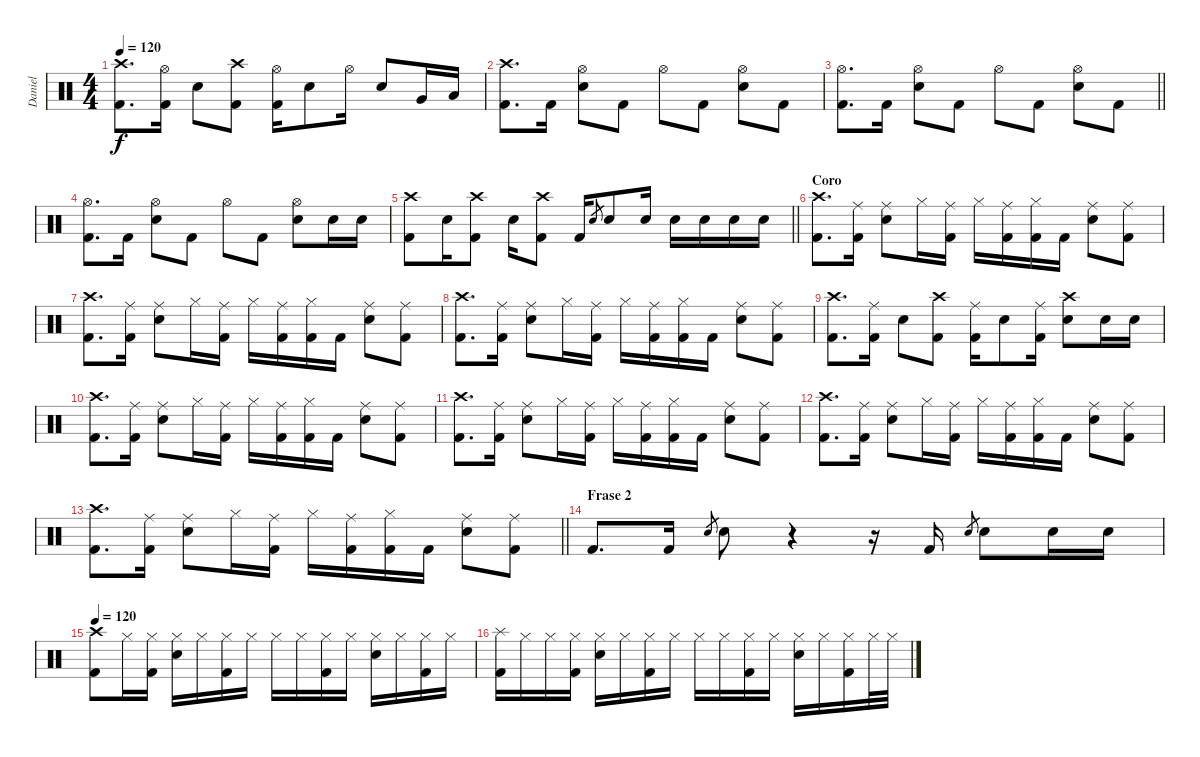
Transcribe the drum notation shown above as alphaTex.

\track ("Daniel" "Daniel") {instrument percussion}
\staff {score}
\articulation defaults
\ts (4 4)
\tempo 120
\clef neutral
\ks c
("Crash high (hit)" "Kick (hit) 2").8{d dy f} ("Hi-Hat (open)" "Kick (hit) 2").16 "Snare (hit) 2".8 ("Crash high (hit)" "Kick (hit) 2").8 ("Hi-Hat (open)" "Kick (hit) 2").16 "Snare (hit) 2".8 "Hi-Hat (open)".16 "Snare (hit) 2".8 "Very Low Tom (hit)".16 "Low Floor Tom (hit)".16 |
("Crash high (hit)" "Kick (hit) 2").8{d} "Kick (hit) 2".16 ("Hi-Hat (open)" "Snare (hit) 2").8 "Kick (hit) 2".8 "Hi-Hat (open)".8 "Kick (hit) 2".8 ("Hi-Hat (open)" "Snare (hit) 2").8 "Kick (hit) 2".8 |
\barLineRight lightlight
("Hi-Hat (open)" "Kick (hit) 2").8{d} "Kick (hit) 2".16 ("Hi-Hat (open)" "Snare (hit) 2").8 "Kick (hit) 2".8 "Hi-Hat (open)".8 "Kick (hit) 2".8 ("Hi-Hat (open)" "Snare (hit) 2").8 "Kick (hit) 2".8 |
("Hi-Hat (open)" "Kick (hit) 2").8{d} "Kick (hit) 2".16 ("Hi-Hat (open)" "Snare (hit) 2").8 "Kick (hit) 2".8 "Hi-Hat (open)".8 "Kick (hit) 2".8 ("Hi-Hat (open)" "Snare (hit) 2").8 "Snare (hit) 2".16 "Snare (hit) 2".16 |
\barLineRight lightlight
("Crash high (hit)" "Kick (hit) 2").8 "Snare (hit) 2".16 ("Crash high (hit)" "Kick (hit) 2").8 "Snare (hit) 2".16 ("Crash high (hit)" "Kick (hit) 2").8 "Kick (hit) 2".16 "Snare (hit) 2".8{gr} "Snare (hit) 2".8 "Snare (hit) 2".16 "Snare (hit) 2".16 "Snare (hit) 2".16 "Snare (hit) 2".16 "Snare (hit) 2".16 |
\section ("" "Coro")
("Crash high (hit)" "Kick (hit) 2").8{d} ("Ride (middle)" "Kick (hit) 2").16 ("Ride (middle)" "Snare (hit) 2").8 "Hi-Hat (closed)".16 ("Ride (middle)" "Kick (hit) 2").16 "Hi-Hat (closed)".16 ("Ride (middle)" "Kick (hit) 2").16 ("Hi-Hat (closed)" "Kick (hit) 2").16 "Kick (hit) 2".16 ("Ride (middle)" "Snare (hit) 2").8 ("Ride (middle)" "Kick (hit) 2").8 |
("Crash high (hit)" "Kick (hit) 2").8{d} ("Ride (middle)" "Kick (hit) 2").16 ("Ride (middle)" "Snare (hit) 2").8 "Hi-Hat (closed)".16 ("Ride (middle)" "Kick (hit) 2").16 "Hi-Hat (closed)".16 ("Ride (middle)" "Kick (hit) 2").16 ("Hi-Hat (closed)" "Kick (hit) 2").16 "Kick (hit) 2".16 ("Ride (middle)" "Snare (hit) 2").8 ("Ride (middle)" "Kick (hit) 2").8 |
("Crash high (hit)" "Kick (hit) 2").8{d} ("Ride (middle)" "Kick (hit) 2").16 ("Ride (middle)" "Snare (hit) 2").8 "Hi-Hat (closed)".16 ("Ride (middle)" "Kick (hit) 2").16 "Hi-Hat (closed)".16 ("Ride (middle)" "Kick (hit) 2").16 ("Hi-Hat (closed)" "Kick (hit) 2").16 "Kick (hit) 2".16 ("Ride (middle)" "Snare (hit) 2").8 ("Ride (middle)" "Kick (hit) 2").8 |
("Crash high (hit)" "Kick (hit) 2").8{d} ("Ride (middle)" "Kick (hit) 2").16 "Snare (hit) 2".8 ("Crash high (hit)" "Kick (hit) 2").8 ("Ride (middle)" "Kick (hit) 2").16 "Snare (hit) 2".8 ("Ride (middle)" "Kick (hit) 2").16 ("Crash high (hit)" "Snare (hit) 2").8 "Snare (hit) 2".16 "Snare (hit) 2".16 |
("Crash high (hit)" "Kick (hit) 2").8{d} ("Ride (middle)" "Kick (hit) 2").16 ("Ride (middle)" "Snare (hit) 2").8 "Hi-Hat (closed)".16 ("Ride (middle)" "Kick (hit) 2").16 "Hi-Hat (closed)".16 ("Ride (middle)" "Kick (hit) 2").16 ("Hi-Hat (closed)" "Kick (hit) 2").16 "Kick (hit) 2".16 ("Ride (middle)" "Snare (hit) 2").8 ("Ride (middle)" "Kick (hit) 2").8 |
("Crash high (hit)" "Kick (hit) 2").8{d} ("Ride (middle)" "Kick (hit) 2").16 ("Ride (middle)" "Snare (hit) 2").8 "Hi-Hat (closed)".16 ("Ride (middle)" "Kick (hit) 2").16 "Hi-Hat (closed)".16 ("Ride (middle)" "Kick (hit) 2").16 ("Hi-Hat (closed)" "Kick (hit) 2").16 "Kick (hit) 2".16 ("Ride (middle)" "Snare (hit) 2").8 ("Ride (middle)" "Kick (hit) 2").8 |
("Crash high (hit)" "Kick (hit) 2").8{d} ("Ride (middle)" "Kick (hit) 2").16 ("Ride (middle)" "Snare (hit) 2").8 "Hi-Hat (closed)".16 ("Ride (middle)" "Kick (hit) 2").16 "Hi-Hat (closed)".16 ("Ride (middle)" "Kick (hit) 2").16 ("Hi-Hat (closed)" "Kick (hit) 2").16 "Kick (hit) 2".16 ("Ride (middle)" "Snare (hit) 2").8 ("Ride (middle)" "Kick (hit) 2").8 |
\barLineRight lightlight
("Crash high (hit)" "Kick (hit) 2").8{d} ("Ride (middle)" "Kick (hit) 2").16 ("Ride (middle)" "Snare (hit) 2").8 "Hi-Hat (closed)".16 ("Ride (middle)" "Kick (hit) 2").16 "Hi-Hat (closed)".16 ("Ride (middle)" "Kick (hit) 2").16 ("Hi-Hat (closed)" "Kick (hit) 2").16 "Kick (hit) 2".16 ("Ride (middle)" "Snare (hit) 2").8 ("Ride (middle)" "Kick (hit) 2").8 |
\section ("" "Frase 2")
"Kick (hit) 2".8{d} "Kick (hit) 2".16 "Snare (hit) 2".8{gr} "Snare (hit) 2".8 r.4 r.16 "Kick (hit) 2".16 "Snare (hit) 2".8{gr} "Snare (hit) 2".8 "Snare (hit) 2".16 "Snare (hit) 2".16 |
\tempo 120
("Crash high (hit)" "Kick (hit) 2").8 "Hi-Hat (closed)".16 ("Hi-Hat (closed)" "Kick (hit) 2").16 ("Hi-Hat (closed)" "Snare (hit) 2").16 "Hi-Hat (closed)".16 ("Hi-Hat (closed)" "Kick (hit) 2").16 "Hi-Hat (closed)".16 "Hi-Hat (closed)".16 "Hi-Hat (closed)".16 ("Hi-Hat (closed)" "Kick (hit) 2").16 "Hi-Hat (closed)".16 ("Hi-Hat (closed)" "Snare (hit) 2").16 "Hi-Hat (closed)".16 ("Hi-Hat (closed)" "Kick (hit) 2").16 "Hi-Hat (closed)".16 |
("Splash (hit)" "Kick (hit) 2").16 "Hi-Hat (closed)".16 "Hi-Hat (closed)".16 ("Hi-Hat (closed)" "Kick (hit) 2").16 ("Hi-Hat (closed)" "Snare (hit) 2").16 "Hi-Hat (closed)".16 ("Hi-Hat (closed)" "Kick (hit) 2").16 "Hi-Hat (closed)".16 "Hi-Hat (closed)".16 "Hi-Hat (closed)".16 ("Hi-Hat (closed)" "Kick (hit) 2").16 "Hi-Hat (closed)".16 ("Hi-Hat (closed)" "Snare (hit) 2").16 "Hi-Hat (closed)".16 ("Hi-Hat (closed)" "Kick (hit) 2").16 "Hi-Hat (closed)".32 "Hi-Hat (closed)".32
